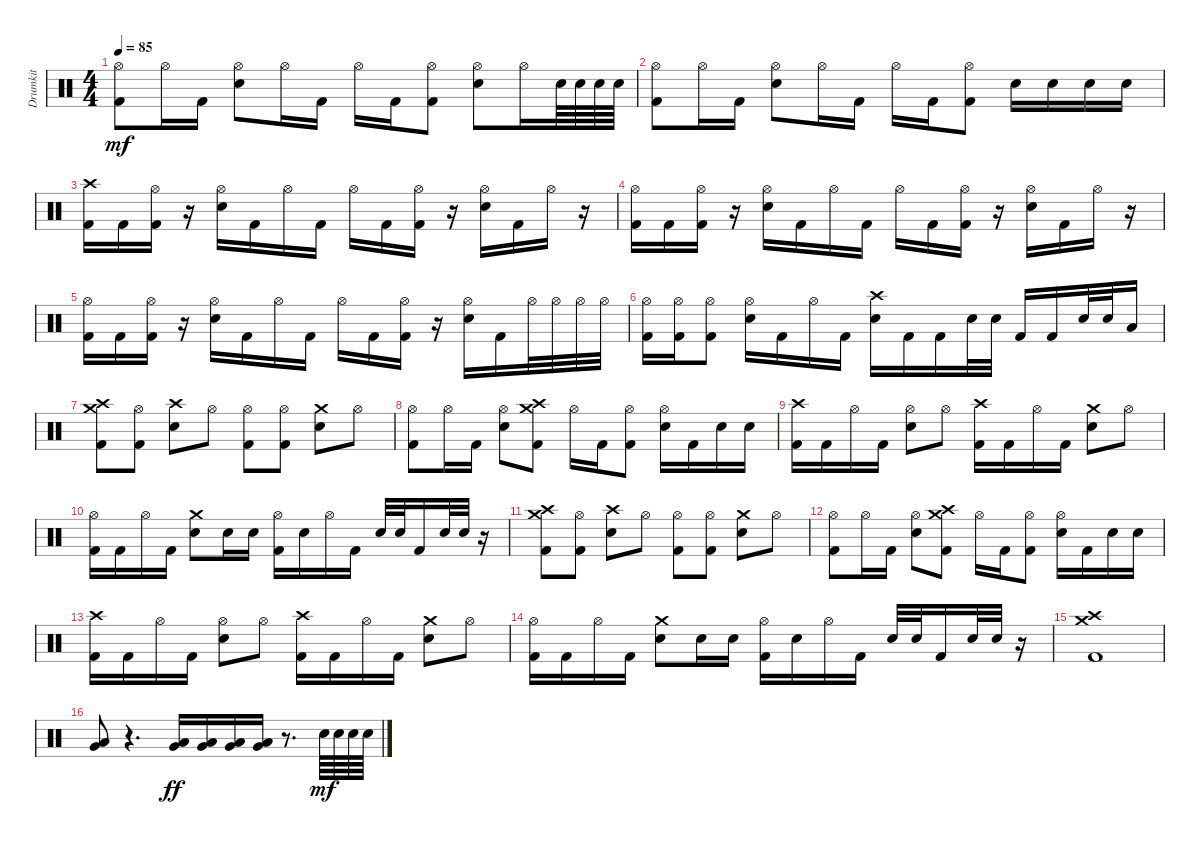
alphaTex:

\track ("Drumkit" "Drumkit") {instrument percussion}
\staff {score}
\articulation defaults
\ts (4 4)
\tempo 85
\clef neutral
\ks c
("Hi-Hat (open)" "Kick (hit) 2").8{dy mf} "Hi-Hat (open)".16 "Kick (hit) 2".16 ("Snare (hit) 2" "Hi-Hat (open)").8 "Hi-Hat (open)".16 "Kick (hit) 2".16 "Hi-Hat (open)".16 "Kick (hit) 2".16 ("Kick (hit) 2" "Hi-Hat (open)").8 ("Snare (hit) 2" "Hi-Hat (open)").8 "Hi-Hat (open)".16 "Snare (hit) 2".64 "Snare (hit) 2".64 "Snare (hit) 2".64 "Snare (hit) 2".64 |
("Hi-Hat (open)" "Kick (hit) 2").8 "Hi-Hat (open)".16 "Kick (hit) 2".16 ("Snare (hit) 2" "Hi-Hat (open)").8 "Hi-Hat (open)".16 "Kick (hit) 2".16 "Hi-Hat (open)".16 "Kick (hit) 2".16 ("Kick (hit) 2" "Hi-Hat (open)").8 "Snare (hit) 2".16 "Snare (hit) 2".16 "Snare (hit) 2".16 "Snare (hit) 2".16 |
("Kick (hit) 2" "Crash high (hit)").16 "Kick (hit) 2".16 ("Kick (hit) 2" "Hi-Hat (open)").16 r.16 ("Hi-Hat (open)" "Snare (hit) 2").16 "Kick (hit) 2".16 "Hi-Hat (open)".16 "Kick (hit) 2".16 "Hi-Hat (open)".16 "Kick (hit) 2".16 ("Kick (hit) 2" "Hi-Hat (open)").16 r.16 ("Snare (hit) 2" "Hi-Hat (open)").16 "Kick (hit) 2".16 "Hi-Hat (open)".16 r.16 |
("Kick (hit) 2" "Hi-Hat (open)").16 "Kick (hit) 2".16 ("Kick (hit) 2" "Hi-Hat (open)").16 r.16 ("Hi-Hat (open)" "Snare (hit) 2").16 "Kick (hit) 2".16 "Hi-Hat (open)".16 "Kick (hit) 2".16 "Hi-Hat (open)".16 "Kick (hit) 2".16 ("Kick (hit) 2" "Hi-Hat (open)").16 r.16 ("Snare (hit) 2" "Hi-Hat (open)").16 "Kick (hit) 2".16 "Hi-Hat (open)".16 r.16 |
("Kick (hit) 2" "Hi-Hat (open)").16 "Kick (hit) 2".16 ("Kick (hit) 2" "Hi-Hat (open)").16 r.16 ("Hi-Hat (open)" "Snare (hit) 2").16 "Kick (hit) 2".16 "Hi-Hat (open)".16 "Kick (hit) 2".16 "Hi-Hat (open)".16 "Kick (hit) 2".16 ("Kick (hit) 2" "Hi-Hat (open)").16 r.16 ("Snare (hit) 2" "Hi-Hat (open)").16 "Kick (hit) 2".16 "Hi-Hat (open)".32 "Hi-Hat (open)".32 "Hi-Hat (open)".32 "Hi-Hat (open)".32 |
("Hi-Hat (open)" "Kick (hit) 2").16 ("Hi-Hat (open)" "Kick (hit) 2").16 ("Hi-Hat (open)" "Kick (hit) 2").8 ("Hi-Hat (open)" "Snare (hit) 2").16 "Kick (hit) 2".16 "Hi-Hat (open)".16 "Kick (hit) 2".16 ("Snare (hit) 2" "Crash high (hit)").16 "Kick (hit) 2".16 "Kick (hit) 2".16 "Snare (hit) 2".32 "Snare (hit) 2".32 "Kick (hit) 2".16 "Kick (hit) 2".16 "Snare (hit) 2".32 "Snare (hit) 2".32 "Low Tom (hit)".16 |
("Kick (hit) 2" "Crash high (hit)" "Crash medium (hit)").8 ("Kick (hit) 2" "Hi-Hat (open)").8 ("Snare (hit) 2" "Crash high (hit)").8 "Hi-Hat (open)".8 ("Kick (hit) 2" "Hi-Hat (open)").8 ("Kick (hit) 2" "Hi-Hat (open)").8 ("Snare (hit) 2" "Crash medium (hit)").8 "Hi-Hat (open)".8 |
("Kick (hit) 2" "Hi-Hat (open)").8 "Hi-Hat (open)".16 "Kick (hit) 2".16 ("Snare (hit) 2" "Hi-Hat (open)").8 ("Kick (hit) 2" "Crash high (hit)" "Crash medium (hit)").8 "Hi-Hat (open)".16 "Kick (hit) 2".16 ("Kick (hit) 2" "Hi-Hat (open)").8 ("Snare (hit) 2" "Hi-Hat (open)").16 "Kick (hit) 2".16 "Snare (hit) 2".16 "Snare (hit) 2".16 |
("Crash high (hit)" "Kick (hit) 2").16 "Kick (hit) 2".16 "Hi-Hat (open)".16 "Kick (hit) 2".16 ("Snare (hit) 2" "Hi-Hat (open)").8 "Hi-Hat (open)".8 ("Crash high (hit)" "Kick (hit) 2").16 "Kick (hit) 2".16 "Hi-Hat (open)".16 "Kick (hit) 2".16 ("Snare (hit) 2" "Crash medium (hit)").8 "Hi-Hat (open)".8 |
("Hi-Hat (open)" "Kick (hit) 2").16 "Kick (hit) 2".16 "Hi-Hat (open)".16 "Kick (hit) 2".16 ("Snare (hit) 2" "Crash medium (hit)").8 "Snare (hit) 2".16 "Snare (hit) 2".16 ("Kick (hit) 2" "Hi-Hat (open)").16 "Snare (hit) 2".16 "Hi-Hat (open)".16 "Kick (hit) 2".16 "Snare (hit) 2".32 "Snare (hit) 2".32 "Kick (hit) 2".16 "Snare (hit) 2".32 "Snare (hit) 2".32 r.16 |
("Kick (hit) 2" "Crash high (hit)" "Crash medium (hit)").8 ("Kick (hit) 2" "Hi-Hat (open)").8 ("Snare (hit) 2" "Crash high (hit)").8 "Hi-Hat (open)".8 ("Kick (hit) 2" "Hi-Hat (open)").8 ("Kick (hit) 2" "Hi-Hat (open)").8 ("Snare (hit) 2" "Crash medium (hit)").8 "Hi-Hat (open)".8 |
("Kick (hit) 2" "Hi-Hat (open)").8 "Hi-Hat (open)".16 "Kick (hit) 2".16 ("Snare (hit) 2" "Hi-Hat (open)").8 ("Kick (hit) 2" "Crash high (hit)" "Crash medium (hit)").8 "Hi-Hat (open)".16 "Kick (hit) 2".16 ("Kick (hit) 2" "Hi-Hat (open)").8 ("Snare (hit) 2" "Hi-Hat (open)").16 "Kick (hit) 2".16 "Snare (hit) 2".16 "Snare (hit) 2".16 |
("Crash high (hit)" "Kick (hit) 2").16 "Kick (hit) 2".16 "Hi-Hat (open)".16 "Kick (hit) 2".16 ("Snare (hit) 2" "Hi-Hat (open)").8 "Hi-Hat (open)".8 ("Crash high (hit)" "Kick (hit) 2").16 "Kick (hit) 2".16 "Hi-Hat (open)".16 "Kick (hit) 2".16 ("Snare (hit) 2" "Crash medium (hit)").8 "Hi-Hat (open)".8 |
("Hi-Hat (open)" "Kick (hit) 2").16 "Kick (hit) 2".16 "Hi-Hat (open)".16 "Kick (hit) 2".16 ("Snare (hit) 2" "Crash medium (hit)").8 "Snare (hit) 2".16 "Snare (hit) 2".16 ("Kick (hit) 2" "Hi-Hat (open)").16 "Snare (hit) 2".16 "Hi-Hat (open)".16 "Kick (hit) 2".16 "Snare (hit) 2".32 "Snare (hit) 2".32 "Kick (hit) 2".16 "Snare (hit) 2".32 "Snare (hit) 2".32 r.16 |
("Kick (hit) 2" "Crash medium (hit)" "Crash high (hit)").1 |
("Low Floor Tom (hit)" "Very Low Tom (hit)").8 r.4{d} ("Low Tom (hit)" "Very Low Tom (hit)").16{dy ff} ("Low Tom (hit)" "Very Low Tom (hit)").16 ("Low Tom (hit)" "Very Low Tom (hit)").16 ("Low Tom (hit)" "Very Low Tom (hit)").16 r.8{d} "Snare (hit) 2".64{dy mf} "Snare (hit) 2".64 "Snare (hit) 2".64 "Snare (hit) 2".64
